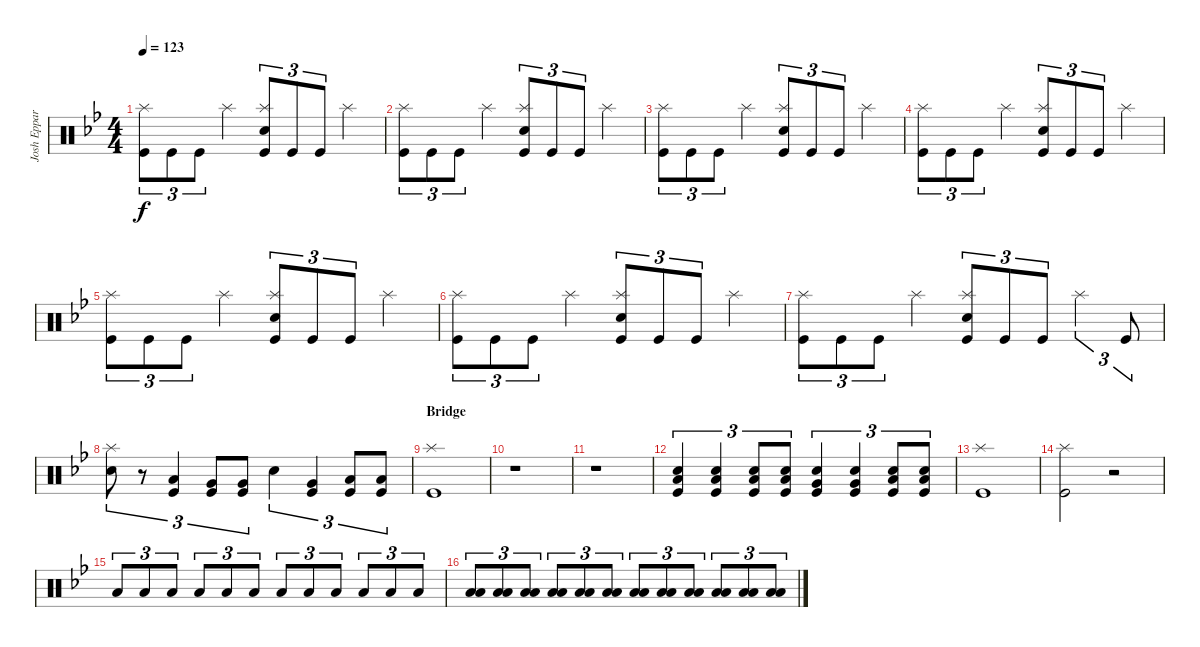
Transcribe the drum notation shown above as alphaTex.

\track ("Josh Eppard" "Josh Eppar") {instrument percussion}
\staff {score}
\articulation defaults
\ts (4 4)
\tempo 123
\clef neutral
\ks gminor
("Kick (hit)" "Splash (hit)").8{tu (3 2) dy f} "Kick (hit)".8{tu (3 2)} "Kick (hit)".8{tu (3 2)} "Splash (hit)".4 ("Kick (hit)" "Splash (hit)" "Snare (hit) 2").8{tu (3 2)} "Kick (hit)".8{tu (3 2)} "Kick (hit)".8{tu (3 2)} "Splash (hit)".4 |
("Kick (hit)" "Splash (hit)").8{tu (3 2)} "Kick (hit)".8{tu (3 2)} "Kick (hit)".8{tu (3 2)} "Splash (hit)".4 ("Kick (hit)" "Splash (hit)" "Snare (hit) 2").8{tu (3 2)} "Kick (hit)".8{tu (3 2)} "Kick (hit)".8{tu (3 2)} "Splash (hit)".4 |
("Kick (hit)" "Splash (hit)").8{tu (3 2)} "Kick (hit)".8{tu (3 2)} "Kick (hit)".8{tu (3 2)} "Splash (hit)".4 ("Kick (hit)" "Splash (hit)" "Snare (hit) 2").8{tu (3 2)} "Kick (hit)".8{tu (3 2)} "Kick (hit)".8{tu (3 2)} "Splash (hit)".4 |
("Kick (hit)" "Splash (hit)").8{tu (3 2)} "Kick (hit)".8{tu (3 2)} "Kick (hit)".8{tu (3 2)} "Splash (hit)".4 ("Kick (hit)" "Splash (hit)" "Snare (hit) 2").8{tu (3 2)} "Kick (hit)".8{tu (3 2)} "Kick (hit)".8{tu (3 2)} "Splash (hit)".4 |
("Kick (hit)" "Splash (hit)").8{tu (3 2)} "Kick (hit)".8{tu (3 2)} "Kick (hit)".8{tu (3 2)} "Splash (hit)".4 ("Kick (hit)" "Splash (hit)" "Snare (hit) 2").8{tu (3 2)} "Kick (hit)".8{tu (3 2)} "Kick (hit)".8{tu (3 2)} "Splash (hit)".4 |
("Kick (hit)" "Splash (hit)").8{tu (3 2)} "Kick (hit)".8{tu (3 2)} "Kick (hit)".8{tu (3 2)} "Splash (hit)".4 ("Kick (hit)" "Splash (hit)" "Snare (hit) 2").8{tu (3 2)} "Kick (hit)".8{tu (3 2)} "Kick (hit)".8{tu (3 2)} "Splash (hit)".4 |
("Kick (hit)" "Splash (hit)").8{tu (3 2)} "Kick (hit)".8{tu (3 2)} "Kick (hit)".8{tu (3 2)} "Splash (hit)".4 ("Kick (hit)" "Splash (hit)" "Snare (hit) 2").8{tu (3 2)} "Kick (hit)".8{tu (3 2)} "Kick (hit)".8{tu (3 2)} "Splash (hit)".4{tu (3 2)} "Kick (hit)".8{tu (3 2)} |
("Snare (hit) 2" "Splash (hit)").8{tu (3 2)} r.8{tu (3 2)} ("Kick (hit)" "Low Tom (hit)").4{tu (3 2)} ("Very Low Tom (hit)" "Kick (hit)").8{tu (3 2)} ("Very Low Tom (hit)" "Kick (hit)").8{tu (3 2)} "Snare (hit) 2".4{tu (3 2)} ("Very Low Tom (hit)" "Kick (hit)").4{tu (3 2)} ("Kick (hit)" "Low Floor Tom (hit)").8{tu (3 2)} ("Kick (hit)" "Low Floor Tom (hit)").8{tu (3 2)} |
\section ("" "Bridge")
("Kick (hit)" "Splash (hit)").1 |
r.1 |
r.1 |
("Kick (hit)" "Low Tom (hit)" "Snare (hit) 2").4{tu (3 2)} ("Snare (hit) 2" "Kick (hit)" "Low Tom (hit)").4{tu (3 2)} ("Kick (hit)" "Low Tom (hit)" "Snare (hit) 2").8{tu (3 2)} ("Kick (hit)" "Low Tom (hit)" "Snare (hit) 2").8{tu (3 2)} ("Kick (hit)" "Very Low Tom (hit)" "Snare (hit) 2").4{tu (3 2)} ("Snare (hit) 2" "Very Low Tom (hit)" "Kick (hit)").4{tu (3 2)} ("Kick (hit)" "Snare (hit) 2" "Low Floor Tom (hit)").8{tu (3 2)} ("Snare (hit) 2" "Kick (hit)" "Low Floor Tom (hit)").8{tu (3 2)} |
("Kick (hit)" "Splash (hit)").1 |
("Kick (hit)" "Splash (hit)").2 r.2 |
"Low Tom (hit)".8{tu (3 2)} "Low Tom (hit)".8{tu (3 2)} "Low Tom (hit)".8{tu (3 2)} "Low Tom (hit)".8{tu (3 2)} "Low Tom (hit)".8{tu (3 2)} "Low Tom (hit)".8{tu (3 2)} "Low Tom (hit)".8{tu (3 2)} "Low Tom (hit)".8{tu (3 2)} "Low Tom (hit)".8{tu (3 2)} "Low Tom (hit)".8{tu (3 2)} "Low Tom (hit)".8{tu (3 2)} "Low Tom (hit)".8{tu (3 2)} |
("Low Tom (hit)" "Low Floor Tom (hit)").8{tu (3 2)} ("Low Tom (hit)" "Low Floor Tom (hit)").8{tu (3 2)} ("Low Tom (hit)" "Low Floor Tom (hit)").8{tu (3 2)} ("Low Tom (hit)" "Low Floor Tom (hit)").8{tu (3 2)} ("Low Tom (hit)" "Low Floor Tom (hit)").8{tu (3 2)} ("Low Tom (hit)" "Low Floor Tom (hit)").8{tu (3 2)} ("Low Tom (hit)" "Low Floor Tom (hit)").8{tu (3 2)} ("Low Tom (hit)" "Low Floor Tom (hit)").8{tu (3 2)} ("Low Tom (hit)" "Low Floor Tom (hit)").8{tu (3 2)} ("Low Tom (hit)" "Low Floor Tom (hit)").8{tu (3 2)} ("Low Tom (hit)" "Low Floor Tom (hit)").8{tu (3 2)} ("Low Tom (hit)" "Low Floor Tom (hit)").8{tu (3 2)}
